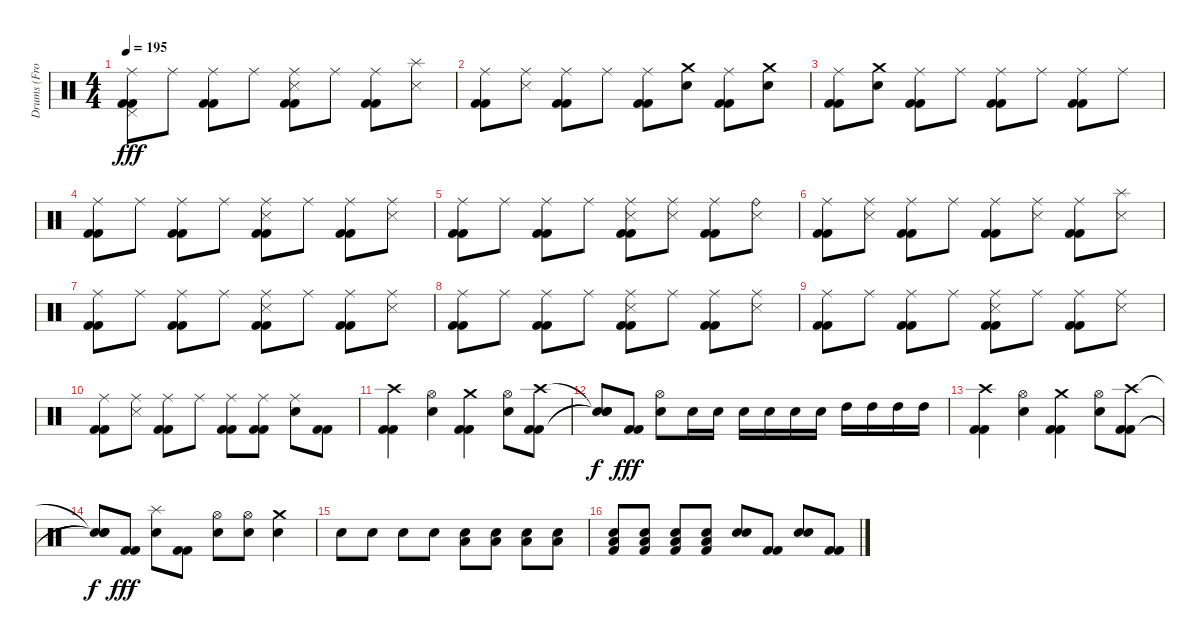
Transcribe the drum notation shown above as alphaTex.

\track ("Drums (From Other GP)" "Drums (Fro") {instrument percussion}
\staff {score}
\articulation defaults
\ts (4 4)
\tempo 195
\clef neutral
\ks c
("Ride (middle)" "Pedal Hi-Hat (hit)" "Kick (hit) 2" "Kick (hit) 2").8{dy fff} "Ride (middle)".8 ("Ride (middle)" "Kick (hit) 2" "Kick (hit) 2").8 "Ride (middle)".8 ("Ride (middle)" "Snare (side stick) 3" "Kick (hit) 2" "Kick (hit) 2").8 "Ride (middle)".8 ("Ride (middle)" "Kick (hit) 2" "Kick (hit) 2").8 ("Splash (hit)" "Snare (side stick) 3").8 |
("Ride (middle)" "Kick (hit) 2" "Kick (hit) 2").8 ("Ride (middle)" "Snare (side stick) 3").8 ("Ride (middle)" "Kick (hit) 2" "Kick (hit) 2").8 "Ride (middle)".8 ("Ride (middle)" "Kick (hit) 2" "Kick (hit) 2").8 ("Crash medium (hit)" "Electric Snare (hit)").8 ("Ride (middle)" "Kick (hit) 2" "Kick (hit) 2").8 ("Crash medium (hit)" "Electric Snare (hit)").8 |
("Ride (middle)" "Kick (hit) 2" "Kick (hit) 2").8 ("Crash medium (hit)" "Electric Snare (hit)").8 ("Ride (middle)" "Kick (hit) 2" "Kick (hit) 2").8 "Ride (middle)".8 ("Ride (middle)" "Kick (hit) 2" "Kick (hit) 2").8 "Ride (middle)".8 ("Ride (middle)" "Kick (hit) 2" "Kick (hit) 2").8 "Ride (middle)".8 |
("Ride (middle)" "Kick (hit) 2" "Kick (hit) 2").8 "Ride (middle)".8 ("Ride (middle)" "Kick (hit) 2" "Kick (hit) 2").8 "Ride (middle)".8 ("Ride (middle)" "Snare (side stick) 3" "Kick (hit) 2" "Kick (hit) 2").8 "Ride (middle)".8 ("Ride (middle)" "Kick (hit) 2" "Kick (hit) 2").8 ("Ride (middle)" "Snare (side stick) 3").8 |
("Ride (middle)" "Kick (hit) 2" "Kick (hit) 2").8 "Ride (middle)".8 ("Ride (middle)" "Kick (hit) 2" "Kick (hit) 2").8 "Ride (middle)".8 ("Ride (middle)" "Snare (side stick) 3" "Kick (hit) 2" "Kick (hit) 2").8 ("Ride (middle)" "Snare (side stick) 3").8 ("Ride (middle)" "Kick (hit) 2" "Kick (hit) 2").8 ("Ride (bell)" "Snare (side stick) 3").8 |
("Ride (middle)" "Kick (hit) 2" "Kick (hit) 2").8 ("Ride (middle)" "Snare (side stick) 3").8 ("Ride (middle)" "Kick (hit) 2" "Kick (hit) 2").8 "Ride (middle)".8 ("Ride (middle)" "Kick (hit) 2" "Kick (hit) 2").8 ("Ride (middle)" "Snare (side stick) 3").8 ("Ride (middle)" "Kick (hit) 2" "Kick (hit) 2").8 ("Splash (hit)" "Snare (side stick) 3").8 |
("Ride (middle)" "Kick (hit) 2" "Kick (hit) 2").8 "Ride (middle)".8 ("Ride (middle)" "Kick (hit) 2" "Kick (hit) 2").8 "Ride (middle)".8 ("Ride (middle)" "Snare (side stick) 3" "Kick (hit) 2" "Kick (hit) 2").8 "Ride (middle)".8 ("Ride (middle)" "Kick (hit) 2" "Kick (hit) 2").8 ("Ride (middle)" "Snare (side stick) 3").8 |
("Ride (middle)" "Kick (hit) 2" "Kick (hit) 2").8 "Ride (middle)".8 ("Ride (middle)" "Kick (hit) 2" "Kick (hit) 2").8 "Ride (middle)".8 ("Ride (middle)" "Snare (side stick) 3" "Kick (hit) 2" "Kick (hit) 2").8 "Ride (middle)".8 ("Ride (middle)" "Kick (hit) 2" "Kick (hit) 2").8 ("Ride (middle)" "Snare (side stick) 3").8 |
("Ride (middle)" "Kick (hit) 2" "Kick (hit) 2").8 "Ride (middle)".8 ("Ride (middle)" "Kick (hit) 2" "Kick (hit) 2").8 "Ride (middle)".8 ("Ride (middle)" "Snare (side stick) 3" "Kick (hit) 2" "Kick (hit) 2").8 "Ride (middle)".8 ("Ride (middle)" "Kick (hit) 2" "Kick (hit) 2").8 ("Ride (middle)" "Snare (side stick) 3").8 |
("Ride (middle)" "Kick (hit) 2" "Kick (hit) 2").8 ("Ride (middle)" "Snare (side stick) 3").8 ("Ride (middle)" "Kick (hit) 2" "Kick (hit) 2").8 "Ride (middle)".8 ("Ride (middle)" "Kick (hit) 2" "Kick (hit) 2").8 ("Ride (middle)" "Kick (hit) 2" "Kick (hit) 2").8 ("Ride (middle)" "Electric Snare (hit)").8 ("Kick (hit) 2" "Kick (hit) 2").8 |
("Crash high (hit)" "Kick (hit) 2" "Kick (hit) 2").4 ("Hi-Hat (open)" "Electric Snare (hit)").4 ("Crash medium (hit)" "Kick (hit) 2" "Kick (hit) 2").4 ("Hi-Hat (open)" "Electric Snare (hit)").8 ("Crash high (hit)" "Kick (hit) 2" "Kick (hit) 2").8 |
("Snare (hit)"{t} "Snare (hit)"{t} "Snare (hit)"{t}).8{dy f} ("Kick (hit) 2" "Kick (hit) 2").8{dy fff} ("Hi-Hat (open)" "Electric Snare (hit)").8 "Electric Snare (hit)".16 "Electric Snare (hit)".16 "Electric Snare (hit)".16 "Electric Snare (hit)".16 "Electric Snare (hit)".16 "Electric Snare (hit)".16 "High Tom (hit)".16 "High Tom (hit)".16 "High Tom (hit)".16 "High Tom (hit)".16 |
("Crash high (hit)" "Kick (hit) 2" "Kick (hit) 2").4 ("Hi-Hat (open)" "Electric Snare (hit)").4 ("Crash medium (hit)" "Kick (hit) 2" "Kick (hit) 2").4 ("Hi-Hat (open)" "Electric Snare (hit)").8 ("Crash high (hit)" "Kick (hit) 2" "Kick (hit) 2").8 |
("Snare (hit)"{t} "Snare (hit)"{t} "Snare (hit)"{t}).8{dy f} ("Kick (hit) 2" "Kick (hit) 2").8{dy fff} ("Splash (hit)" "Electric Snare (hit)").8 ("Kick (hit) 2" "Kick (hit) 2").8 ("Hi-Hat (open)" "Electric Snare (hit)").8 ("Hi-Hat (open)" "Electric Snare (hit)").8 ("Crash medium (hit)" "Electric Snare (hit)").4 |
"Electric Snare (hit)".8 "Electric Snare (hit)".8 "Electric Snare (hit)".8 "Electric Snare (hit)".8 ("Low Floor Tom (hit)" "Electric Snare (hit)").8 ("Low Floor Tom (hit)" "Electric Snare (hit)").8 ("Low Floor Tom (hit)" "Electric Snare (hit)").8 ("Low Floor Tom (hit)" "Electric Snare (hit)").8 |
("Low Floor Tom (hit)" "Electric Snare (hit)" "Kick (hit) 2").8 ("Low Floor Tom (hit)" "Electric Snare (hit)" "Kick (hit) 2").8 ("Low Floor Tom (hit)" "Electric Snare (hit)" "Kick (hit) 2").8 ("Low Floor Tom (hit)" "Electric Snare (hit)" "Kick (hit) 2").8 ("Electric Snare (hit)" "Electric Snare (hit)").8 ("Kick (hit) 2" "Kick (hit) 2").8 ("Electric Snare (hit)" "Electric Snare (hit)").8 ("Kick (hit) 2" "Kick (hit) 2").8
